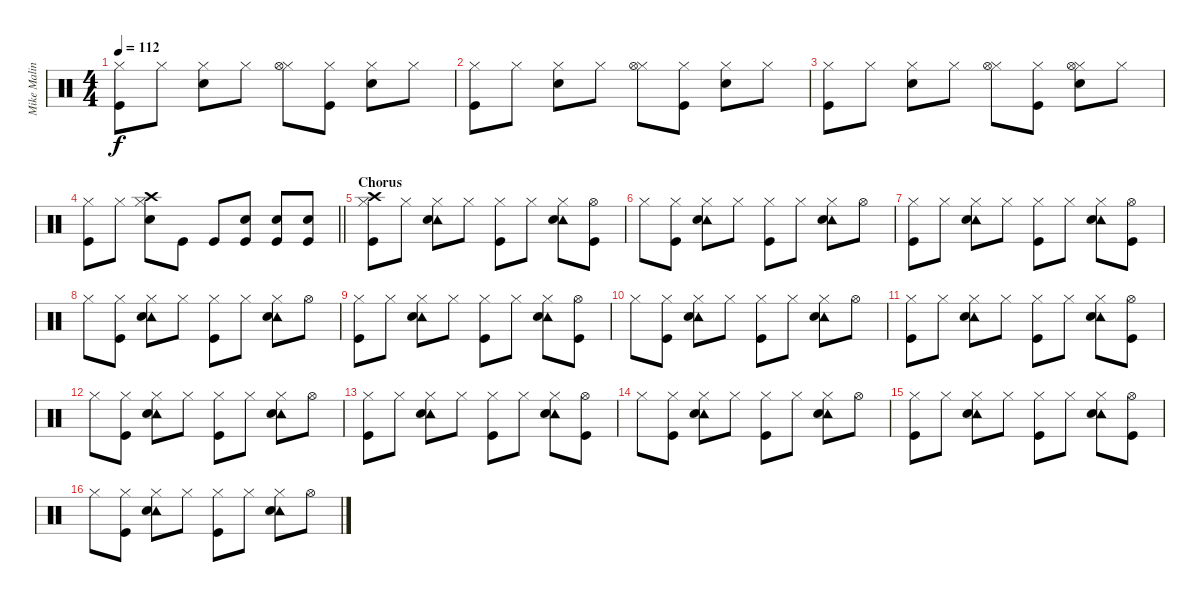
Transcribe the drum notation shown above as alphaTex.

\track ("Mike Malinin - Percussion" "Mike Malin") {instrument percussion}
\staff {score}
\articulation defaults
\ts (4 4)
\tempo 112
\clef neutral
\ks c
("Hi-Hat (closed)" "Kick (hit)").8{dy f} "Hi-Hat (closed)".8 ("Hi-Hat (closed)" "Snare (hit) 2").8 "Hi-Hat (closed)".8 ("Hi-Hat (closed)" "Hi-Hat (open)").8 ("Hi-Hat (closed)" "Kick (hit)").8 ("Hi-Hat (closed)" "Snare (hit) 2").8 "Hi-Hat (closed)".8 |
("Hi-Hat (closed)" "Kick (hit)").8 "Hi-Hat (closed)".8 ("Hi-Hat (closed)" "Snare (hit) 2").8 "Hi-Hat (closed)".8 ("Hi-Hat (closed)" "Hi-Hat (open)").8 ("Hi-Hat (closed)" "Kick (hit)").8 ("Hi-Hat (closed)" "Snare (hit) 2").8 "Hi-Hat (closed)".8 |
("Hi-Hat (closed)" "Kick (hit)").8 "Hi-Hat (closed)".8 ("Hi-Hat (closed)" "Snare (hit) 2").8 "Hi-Hat (closed)".8 ("Hi-Hat (closed)" "Hi-Hat (open)").8 ("Hi-Hat (closed)" "Kick (hit)").8 ("Hi-Hat (closed)" "Hi-Hat (open)" "Snare (hit) 2").8 "Hi-Hat (closed)".8 |
\barLineRight lightlight
("Hi-Hat (closed)" "Kick (hit)").8 "Hi-Hat (closed)".8 ("Hi-Hat (closed)" "Crash high (hit)" "Snare (hit) 2").8 "Kick (hit)".8 "Kick (hit)".8 ("Snare (hit) 2" "Kick (hit)").8 ("Snare (hit) 2" "Kick (hit)").8 ("Snare (hit) 2" "Kick (hit)").8 |
\section ("" "Chorus")
("Hi-Hat (closed)" "Crash high (hit)" "Kick (hit)").8 "Hi-Hat (closed)".8 ("Hi-Hat (closed)" "Tambourine (hit)" "Snare (hit) 2").8 "Hi-Hat (closed)".8 ("Hi-Hat (closed)" "Kick (hit)").8 "Hi-Hat (closed)".8 ("Hi-Hat (closed)" "Tambourine (hit)" "Snare (hit) 2").8 ("Hi-Hat (open)" "Kick (hit)").8 |
"Hi-Hat (closed)".8 ("Hi-Hat (closed)" "Kick (hit)").8 ("Hi-Hat (closed)" "Tambourine (hit)" "Snare (hit) 2").8 "Hi-Hat (closed)".8 ("Hi-Hat (closed)" "Kick (hit)").8 "Hi-Hat (closed)".8 ("Hi-Hat (closed)" "Tambourine (hit)" "Snare (hit) 2").8 "Hi-Hat (open)".8 |
("Hi-Hat (closed)" "Kick (hit)").8 "Hi-Hat (closed)".8 ("Hi-Hat (closed)" "Tambourine (hit)" "Snare (hit) 2").8 "Hi-Hat (closed)".8 ("Hi-Hat (closed)" "Kick (hit)").8 "Hi-Hat (closed)".8 ("Hi-Hat (closed)" "Tambourine (hit)" "Snare (hit) 2").8 ("Hi-Hat (open)" "Kick (hit)").8 |
"Hi-Hat (closed)".8 ("Hi-Hat (closed)" "Kick (hit)").8 ("Hi-Hat (closed)" "Tambourine (hit)" "Snare (hit) 2").8 "Hi-Hat (closed)".8 ("Hi-Hat (closed)" "Kick (hit)").8 "Hi-Hat (closed)".8 ("Hi-Hat (closed)" "Tambourine (hit)" "Snare (hit) 2").8 "Hi-Hat (open)".8 |
("Hi-Hat (closed)" "Kick (hit)").8 "Hi-Hat (closed)".8 ("Hi-Hat (closed)" "Tambourine (hit)" "Snare (hit) 2").8 "Hi-Hat (closed)".8 ("Hi-Hat (closed)" "Kick (hit)").8 "Hi-Hat (closed)".8 ("Hi-Hat (closed)" "Tambourine (hit)" "Snare (hit) 2").8 ("Hi-Hat (open)" "Kick (hit)").8 |
"Hi-Hat (closed)".8 ("Hi-Hat (closed)" "Kick (hit)").8 ("Hi-Hat (closed)" "Tambourine (hit)" "Snare (hit) 2").8 "Hi-Hat (closed)".8 ("Hi-Hat (closed)" "Kick (hit)").8 "Hi-Hat (closed)".8 ("Hi-Hat (closed)" "Tambourine (hit)" "Snare (hit) 2").8 "Hi-Hat (open)".8 |
("Hi-Hat (closed)" "Kick (hit)").8 "Hi-Hat (closed)".8 ("Hi-Hat (closed)" "Tambourine (hit)" "Snare (hit) 2").8 "Hi-Hat (closed)".8 ("Hi-Hat (closed)" "Kick (hit)").8 "Hi-Hat (closed)".8 ("Hi-Hat (closed)" "Tambourine (hit)" "Snare (hit) 2").8 ("Hi-Hat (open)" "Kick (hit)").8 |
"Hi-Hat (closed)".8 ("Hi-Hat (closed)" "Kick (hit)").8 ("Hi-Hat (closed)" "Tambourine (hit)" "Snare (hit) 2").8 "Hi-Hat (closed)".8 ("Hi-Hat (closed)" "Kick (hit)").8 "Hi-Hat (closed)".8 ("Hi-Hat (closed)" "Tambourine (hit)" "Snare (hit) 2").8 "Hi-Hat (open)".8 |
("Hi-Hat (closed)" "Kick (hit)").8 "Hi-Hat (closed)".8 ("Hi-Hat (closed)" "Tambourine (hit)" "Snare (hit) 2").8 "Hi-Hat (closed)".8 ("Hi-Hat (closed)" "Kick (hit)").8 "Hi-Hat (closed)".8 ("Hi-Hat (closed)" "Tambourine (hit)" "Snare (hit) 2").8 ("Hi-Hat (open)" "Kick (hit)").8 |
"Hi-Hat (closed)".8 ("Hi-Hat (closed)" "Kick (hit)").8 ("Hi-Hat (closed)" "Tambourine (hit)" "Snare (hit) 2").8 "Hi-Hat (closed)".8 ("Hi-Hat (closed)" "Kick (hit)").8 "Hi-Hat (closed)".8 ("Hi-Hat (closed)" "Tambourine (hit)" "Snare (hit) 2").8 "Hi-Hat (open)".8 |
("Hi-Hat (closed)" "Kick (hit)").8 "Hi-Hat (closed)".8 ("Hi-Hat (closed)" "Tambourine (hit)" "Snare (hit) 2").8 "Hi-Hat (closed)".8 ("Hi-Hat (closed)" "Kick (hit)").8 "Hi-Hat (closed)".8 ("Hi-Hat (closed)" "Tambourine (hit)" "Snare (hit) 2").8 ("Hi-Hat (open)" "Kick (hit)").8 |
"Hi-Hat (closed)".8 ("Hi-Hat (closed)" "Kick (hit)").8 ("Hi-Hat (closed)" "Tambourine (hit)" "Snare (hit) 2").8 "Hi-Hat (closed)".8 ("Hi-Hat (closed)" "Kick (hit)").8 "Hi-Hat (closed)".8 ("Hi-Hat (closed)" "Tambourine (hit)" "Snare (hit) 2").8 "Hi-Hat (open)".8
